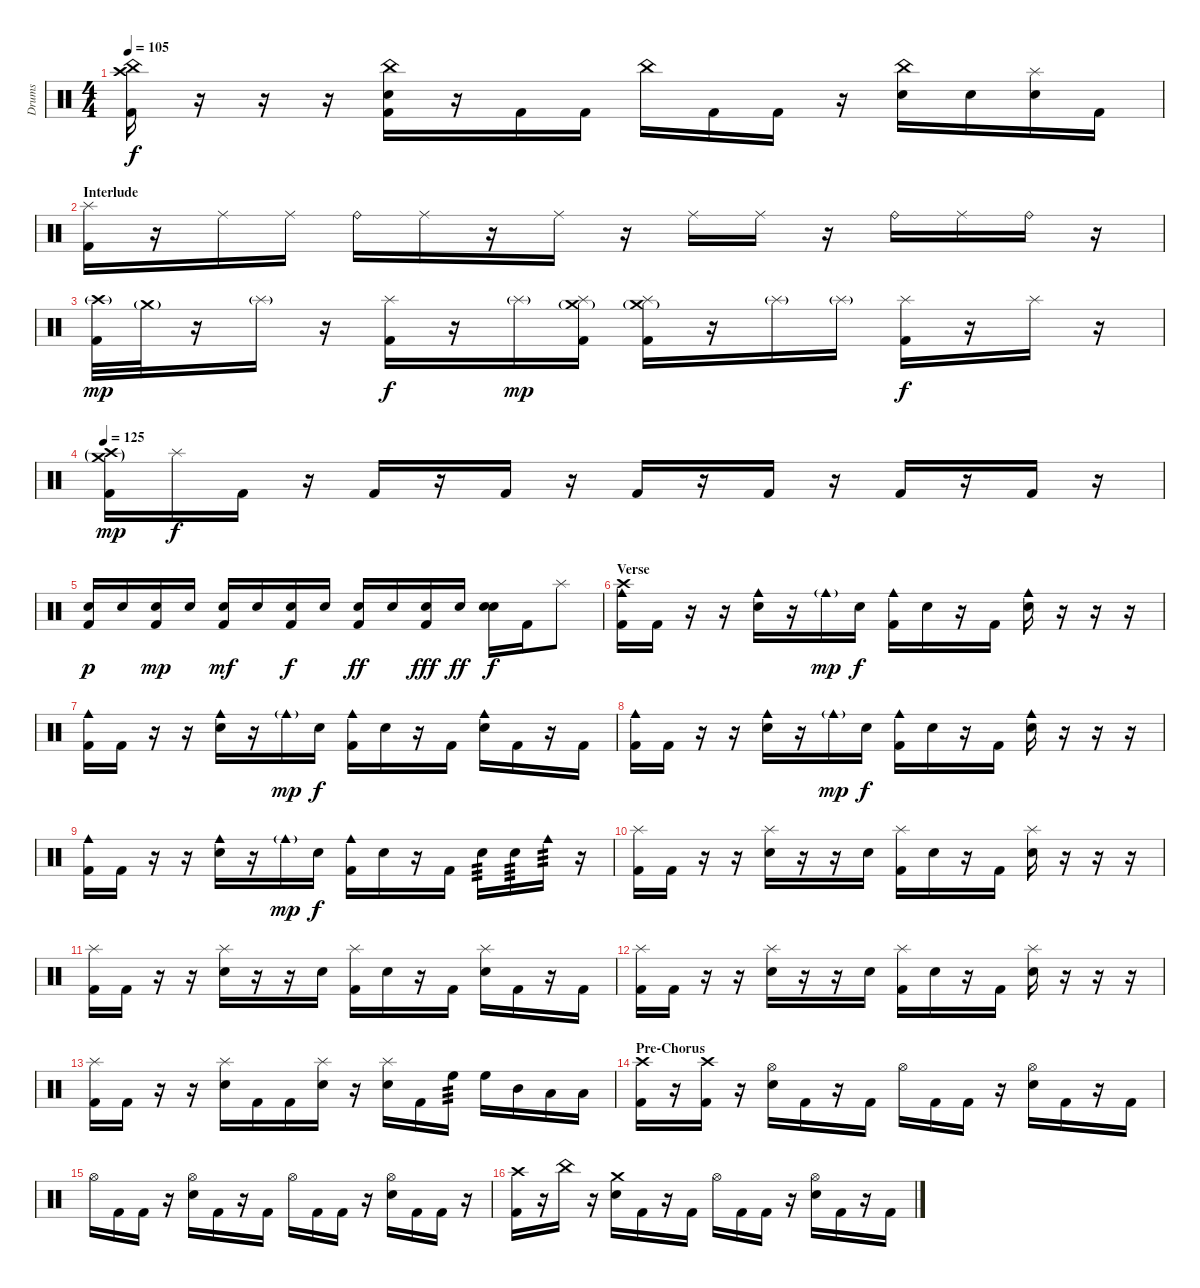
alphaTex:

\track ("Drums" "Drums") {instrument percussion}
\staff {score}
\articulation defaults
\ts (4 4)
\tempo 105
\clef neutral
\ks c
("China (hit)" "Crash high (hit)" "Kick (hit) 2").16{dy f} r.16 r.16 r.16 ("China (hit)" "Electric Snare (hit)" "Kick (hit) 2").16 r.16 "Kick (hit) 2".16 "Kick (hit) 2".16 "China (hit)".16 "Kick (hit) 2".16 "Kick (hit) 2".16 r.16 ("China (hit)" "Electric Snare (hit)").16 "Electric Snare (hit)".16 ("Splash (hit)" "Electric Snare (hit)").16 "Kick (hit) 2".16 |
\section ("" "Interlude")
("Splash (hit)" "Kick (hit) 2").16 r.16 "Ride (middle)".16 "Ride (middle)".16 "Ride (bell)".16 "Ride (middle)".16 r.16 "Ride (middle)".16 r.16 "Ride (middle)".16 "Ride (middle)".16 r.16 "Ride (bell)".16 "Ride (middle)".16 "Ride (bell)".16 r.16 |
("Crash high (hit)"{g} "Kick (hit) 2").32{dy mp} "Crash medium (hit)"{g}.32 r.16 "Splash (hit)"{g}.16 r.16 ("Splash (hit)" "Kick (hit) 2").16{dy f} r.16 "Splash (hit)"{g}.16{dy mp} ("Splash (hit)" "Crash medium (hit)"{g} "Kick (hit) 2").16 ("Splash (hit)" "Crash medium (hit)"{g} "Kick (hit) 2").16 r.16 "Splash (hit)"{g}.16 "Splash (hit)"{g}.16 ("Splash (hit)" "Kick (hit) 2").16{dy f} r.16 "Splash (hit)".16 r.16 |
\tempo 125
("Crash medium (hit)"{g} "Crash high (hit)"{g} "Kick (hit) 2").16{dy mp} "Splash (hit)".16{dy f} "Kick (hit) 2".16 r.16 "Kick (hit) 2".16 r.16 "Kick (hit) 2".16 r.16 "Kick (hit) 2".16 r.16 "Kick (hit) 2".16 r.16 "Kick (hit) 2".16 r.16 "Kick (hit) 2".16 r.16 |
("Electric Snare (hit)" "Kick (hit) 2").16{dy p} "Electric Snare (hit)".16 ("Electric Snare (hit)" "Kick (hit) 2").16{dy mp} "Electric Snare (hit)".16 ("Electric Snare (hit)" "Kick (hit) 2").16{dy mf} "Electric Snare (hit)".16 ("Electric Snare (hit)" "Kick (hit) 2").16{dy f} "Electric Snare (hit)".16 ("Electric Snare (hit)" "Kick (hit) 2").16{dy ff} "Electric Snare (hit)".16 ("Electric Snare (hit)" "Kick (hit) 2").16{dy fff} "Electric Snare (hit)".16{dy ff} ("Electric Snare (hit)" "Electric Snare (hit)").16{dy f} "Kick (hit) 2".16 "Splash (hit)".8 |
\section ("" "Verse")
("Cowbell medium (hit)" "Crash high (hit)" "Kick (hit) 2").16 "Kick (hit) 2".16 r.16 r.16 ("Cowbell medium (hit)" "Electric Snare (hit)").16 r.16 "Cowbell medium (hit)"{g}.16{dy mp} "Electric Snare (hit)".16{dy f} ("Cowbell medium (hit)" "Kick (hit) 2").16 "Electric Snare (hit)".16 r.16 "Kick (hit) 2".16 ("Cowbell medium (hit)" "Electric Snare (hit)").16 r.16 r.16 r.16 |
("Cowbell medium (hit)" "Kick (hit) 2").16 "Kick (hit) 2".16 r.16 r.16 ("Cowbell medium (hit)" "Electric Snare (hit)").16 r.16 "Cowbell medium (hit)"{g}.16{dy mp} "Electric Snare (hit)".16{dy f} ("Cowbell medium (hit)" "Kick (hit) 2").16 "Electric Snare (hit)".16 r.16 "Kick (hit) 2".16 ("Cowbell medium (hit)" "Electric Snare (hit)").16 "Kick (hit) 2".16 r.16 "Kick (hit) 2".16 |
("Cowbell medium (hit)" "Kick (hit) 2").16 "Kick (hit) 2".16 r.16 r.16 ("Cowbell medium (hit)" "Electric Snare (hit)").16 r.16 "Cowbell medium (hit)"{g}.16{dy mp} "Electric Snare (hit)".16{dy f} ("Cowbell medium (hit)" "Kick (hit) 2").16 "Electric Snare (hit)".16 r.16 "Kick (hit) 2".16 ("Cowbell medium (hit)" "Electric Snare (hit)").16 r.16 r.16 r.16 |
("Cowbell medium (hit)" "Kick (hit) 2").16 "Kick (hit) 2".16 r.16 r.16 ("Cowbell medium (hit)" "Electric Snare (hit)").16 r.16 "Cowbell medium (hit)"{g}.16{dy mp} "Electric Snare (hit)".16{dy f} ("Cowbell medium (hit)" "Kick (hit) 2").16 "Electric Snare (hit)".16 r.16 "Kick (hit) 2".16 "Electric Snare (hit)".16{tp 3} "Electric Snare (hit)".16{tp 3} "Cowbell medium (hit)".16{tp 3} r.16 |
("Splash (hit)" "Kick (hit) 2").16 "Kick (hit) 2".16 r.16 r.16 ("Splash (hit)" "Electric Snare (hit)").16 r.16 r.16 "Electric Snare (hit)".16 ("Splash (hit)" "Kick (hit) 2").16 "Electric Snare (hit)".16 r.16 "Kick (hit) 2".16 ("Splash (hit)" "Electric Snare (hit)").16 r.16 r.16 r.16 |
("Splash (hit)" "Kick (hit) 2").16 "Kick (hit) 2".16 r.16 r.16 ("Splash (hit)" "Electric Snare (hit)").16 r.16 r.16 "Electric Snare (hit)".16 ("Splash (hit)" "Kick (hit) 2").16 "Electric Snare (hit)".16 r.16 "Kick (hit) 2".16 ("Splash (hit)" "Electric Snare (hit)").16 "Kick (hit) 2".16 r.16 "Kick (hit) 2".16 |
("Splash (hit)" "Kick (hit) 2").16 "Kick (hit) 2".16 r.16 r.16 ("Splash (hit)" "Electric Snare (hit)").16 r.16 r.16 "Electric Snare (hit)".16 ("Splash (hit)" "Kick (hit) 2").16 "Electric Snare (hit)".16 r.16 "Kick (hit) 2".16 ("Splash (hit)" "Electric Snare (hit)").16 r.16 r.16 r.16 |
("Splash (hit)" "Kick (hit) 2").16 "Kick (hit) 2".16 r.16 r.16 ("Splash (hit)" "Electric Snare (hit)").16 "Kick (hit) 2".16 "Kick (hit) 2".16 ("Splash (hit)" "Electric Snare (hit)").16 r.16 ("Splash (hit)" "Electric Snare (hit)").16 "Kick (hit) 2".16 "High Floor Tom (hit)".16{tp 3} "High Floor Tom (hit)".16 "Mid Tom (hit)".16 "Low Tom (hit)".16 "Low Tom (hit)".16 |
\section ("" "Pre-Chorus")
("Crash high (hit)" "Kick (hit) 2").16 r.16 ("Crash high (hit)" "Kick (hit) 2").16 r.16 ("Hi-Hat (open)" "Electric Snare (hit)").16 "Kick (hit) 2".16 r.16 "Kick (hit) 2".16 "Hi-Hat (open)".16 "Kick (hit) 2".16 "Kick (hit) 2".16 r.16 ("Hi-Hat (open)" "Electric Snare (hit)").16 "Kick (hit) 2".16 r.16 "Kick (hit) 2".16 |
"Hi-Hat (open)".16 "Kick (hit) 2".16 "Kick (hit) 2".16 r.16 ("Hi-Hat (open)" "Electric Snare (hit)").16 "Kick (hit) 2".16 r.16 "Kick (hit) 2".16 "Hi-Hat (open)".16 "Kick (hit) 2".16 "Kick (hit) 2".16 r.16 ("Hi-Hat (open)" "Electric Snare (hit)").16 "Kick (hit) 2".16 "Kick (hit) 2".16 r.16 |
("Crash high (hit)" "Kick (hit) 2").16 r.16 "China (hit)".16 r.16 ("Crash medium (hit)" "Electric Snare (hit)").16 "Kick (hit) 2".16 r.16 "Kick (hit) 2".16 "Hi-Hat (open)".16 "Kick (hit) 2".16 "Kick (hit) 2".16 r.16 ("Hi-Hat (open)" "Electric Snare (hit)").16 "Kick (hit) 2".16 r.16 "Kick (hit) 2".16
